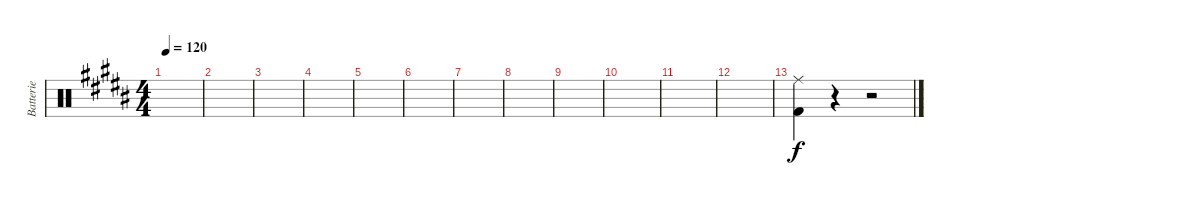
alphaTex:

\track ("Batterie" "Batterie") {instrument percussion}
\staff {score}
\articulation defaults
\ts (4 4)
\tempo 120
\clef neutral
\ks b
|
|
|
|
|
|
|
|
|
|
|
|
("Ride (middle)" "Kick (hit) 2").4 r.4 r.2
